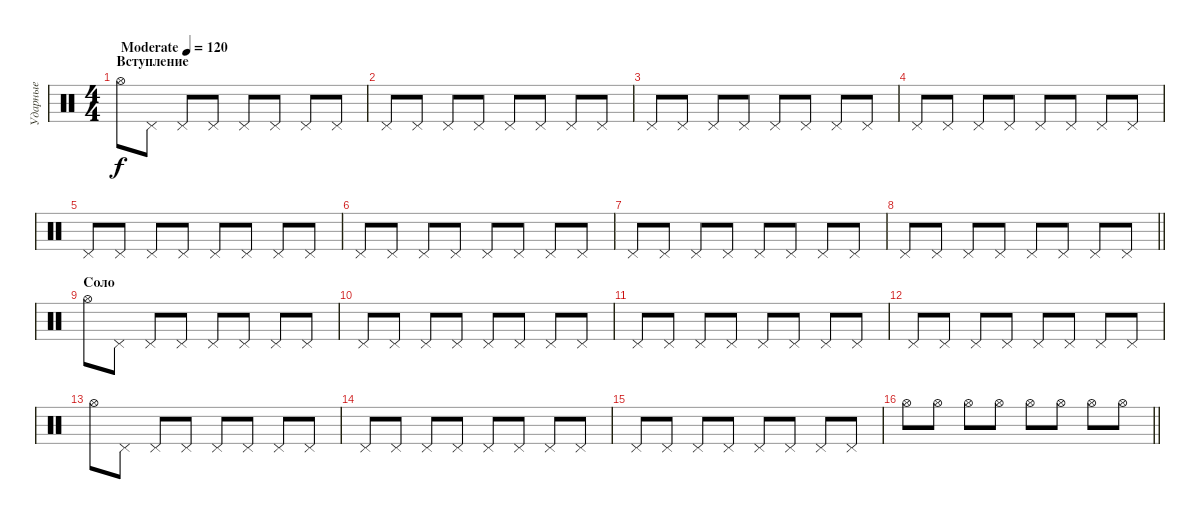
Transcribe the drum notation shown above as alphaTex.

\track ("Ударные" "Ударные") {instrument percussion}
\staff {score}
\articulation defaults
\ts (4 4)
\section ("" "Вступление")
\tempo (120 "Moderate")
\clef neutral
\ks c "Hi-Hat (open)".8{dy f} "Pedal Hi-Hat (hit)".8 "Pedal Hi-Hat (hit)".8 "Pedal Hi-Hat (hit)".8 "Pedal Hi-Hat (hit)".8 "Pedal Hi-Hat (hit)".8 "Pedal Hi-Hat (hit)".8 "Pedal Hi-Hat (hit)".8
|
"Pedal Hi-Hat (hit)".8 "Pedal Hi-Hat (hit)".8 "Pedal Hi-Hat (hit)".8 "Pedal Hi-Hat (hit)".8 "Pedal Hi-Hat (hit)".8 "Pedal Hi-Hat (hit)".8 "Pedal Hi-Hat (hit)".8 "Pedal Hi-Hat (hit)".8 |
"Pedal Hi-Hat (hit)".8 "Pedal Hi-Hat (hit)".8 "Pedal Hi-Hat (hit)".8 "Pedal Hi-Hat (hit)".8 "Pedal Hi-Hat (hit)".8 "Pedal Hi-Hat (hit)".8 "Pedal Hi-Hat (hit)".8 "Pedal Hi-Hat (hit)".8 |
"Pedal Hi-Hat (hit)".8 "Pedal Hi-Hat (hit)".8 "Pedal Hi-Hat (hit)".8 "Pedal Hi-Hat (hit)".8 "Pedal Hi-Hat (hit)".8 "Pedal Hi-Hat (hit)".8 "Pedal Hi-Hat (hit)".8 "Pedal Hi-Hat (hit)".8 |
"Pedal Hi-Hat (hit)".8 "Pedal Hi-Hat (hit)".8 "Pedal Hi-Hat (hit)".8 "Pedal Hi-Hat (hit)".8 "Pedal Hi-Hat (hit)".8 "Pedal Hi-Hat (hit)".8 "Pedal Hi-Hat (hit)".8 "Pedal Hi-Hat (hit)".8 |
"Pedal Hi-Hat (hit)".8 "Pedal Hi-Hat (hit)".8 "Pedal Hi-Hat (hit)".8 "Pedal Hi-Hat (hit)".8 "Pedal Hi-Hat (hit)".8 "Pedal Hi-Hat (hit)".8 "Pedal Hi-Hat (hit)".8 "Pedal Hi-Hat (hit)".8 |
"Pedal Hi-Hat (hit)".8 "Pedal Hi-Hat (hit)".8 "Pedal Hi-Hat (hit)".8 "Pedal Hi-Hat (hit)".8 "Pedal Hi-Hat (hit)".8 "Pedal Hi-Hat (hit)".8 "Pedal Hi-Hat (hit)".8 "Pedal Hi-Hat (hit)".8 |
\barLineRight lightlight "Pedal Hi-Hat (hit)".8 "Pedal Hi-Hat (hit)".8 "Pedal Hi-Hat (hit)".8 "Pedal Hi-Hat (hit)".8 "Pedal Hi-Hat (hit)".8 "Pedal Hi-Hat (hit)".8 "Pedal Hi-Hat (hit)".8 "Pedal Hi-Hat (hit)".8
|
\section ("" "Соло")
"Hi-Hat (open)".8 "Pedal Hi-Hat (hit)".8 "Pedal Hi-Hat (hit)".8 "Pedal Hi-Hat (hit)".8 "Pedal Hi-Hat (hit)".8 "Pedal Hi-Hat (hit)".8 "Pedal Hi-Hat (hit)".8 "Pedal Hi-Hat (hit)".8 |
"Pedal Hi-Hat (hit)".8 "Pedal Hi-Hat (hit)".8 "Pedal Hi-Hat (hit)".8 "Pedal Hi-Hat (hit)".8 "Pedal Hi-Hat (hit)".8 "Pedal Hi-Hat (hit)".8 "Pedal Hi-Hat (hit)".8 "Pedal Hi-Hat (hit)".8 |
"Pedal Hi-Hat (hit)".8 "Pedal Hi-Hat (hit)".8 "Pedal Hi-Hat (hit)".8 "Pedal Hi-Hat (hit)".8 "Pedal Hi-Hat (hit)".8 "Pedal Hi-Hat (hit)".8 "Pedal Hi-Hat (hit)".8 "Pedal Hi-Hat (hit)".8 |
"Pedal Hi-Hat (hit)".8 "Pedal Hi-Hat (hit)".8 "Pedal Hi-Hat (hit)".8 "Pedal Hi-Hat (hit)".8 "Pedal Hi-Hat (hit)".8 "Pedal Hi-Hat (hit)".8 "Pedal Hi-Hat (hit)".8 "Pedal Hi-Hat (hit)".8 |
"Hi-Hat (open)".8 "Pedal Hi-Hat (hit)".8 "Pedal Hi-Hat (hit)".8 "Pedal Hi-Hat (hit)".8 "Pedal Hi-Hat (hit)".8 "Pedal Hi-Hat (hit)".8 "Pedal Hi-Hat (hit)".8 "Pedal Hi-Hat (hit)".8 |
"Pedal Hi-Hat (hit)".8 "Pedal Hi-Hat (hit)".8 "Pedal Hi-Hat (hit)".8 "Pedal Hi-Hat (hit)".8 "Pedal Hi-Hat (hit)".8 "Pedal Hi-Hat (hit)".8 "Pedal Hi-Hat (hit)".8 "Pedal Hi-Hat (hit)".8 |
"Pedal Hi-Hat (hit)".8 "Pedal Hi-Hat (hit)".8 "Pedal Hi-Hat (hit)".8 "Pedal Hi-Hat (hit)".8 "Pedal Hi-Hat (hit)".8 "Pedal Hi-Hat (hit)".8 "Pedal Hi-Hat (hit)".8 "Pedal Hi-Hat (hit)".8 |
\barLineRight lightlight "Hi-Hat (open)".8 "Hi-Hat (open)".8 "Hi-Hat (open)".8 "Hi-Hat (open)".8 "Hi-Hat (open)".8 "Hi-Hat (open)".8 "Hi-Hat (open)".8 "Hi-Hat (open)".8
